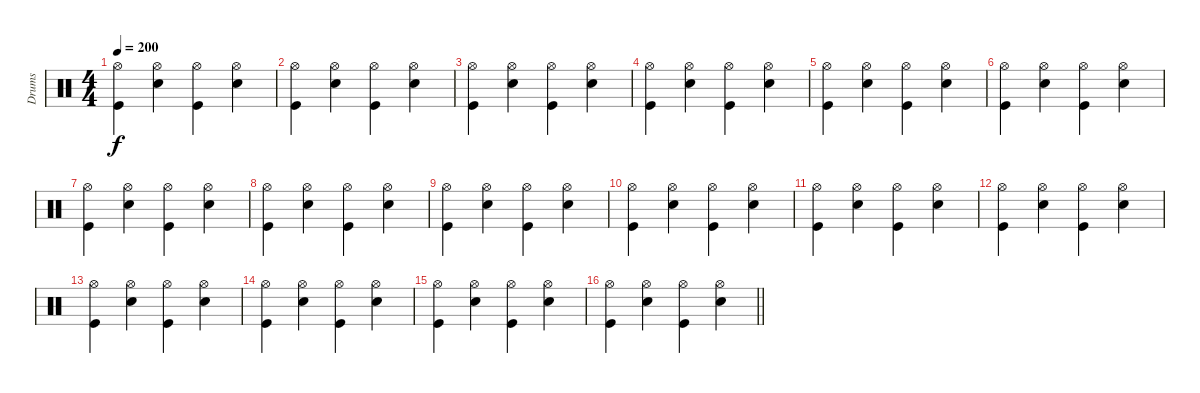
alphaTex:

\track ("Drums" "Drums") {instrument percussion}
\staff {score}
\articulation defaults
\ts (4 4)
\tempo 200
\clef neutral
\ks c
("Hi-Hat (open)" "Kick (hit)").4{dy f} ("Hi-Hat (open)" "Snare (hit) 2").4 ("Hi-Hat (open)" "Kick (hit)").4 ("Hi-Hat (open)" "Snare (hit) 2").4 |
("Hi-Hat (open)" "Kick (hit)").4 ("Hi-Hat (open)" "Snare (hit) 2").4 ("Hi-Hat (open)" "Kick (hit)").4 ("Hi-Hat (open)" "Snare (hit) 2").4 |
("Hi-Hat (open)" "Kick (hit)").4 ("Hi-Hat (open)" "Snare (hit) 2").4 ("Hi-Hat (open)" "Kick (hit)").4 ("Hi-Hat (open)" "Snare (hit) 2").4 |
("Hi-Hat (open)" "Kick (hit)").4 ("Hi-Hat (open)" "Snare (hit) 2").4 ("Hi-Hat (open)" "Kick (hit)").4 ("Hi-Hat (open)" "Snare (hit) 2").4 |
("Hi-Hat (open)" "Kick (hit)").4 ("Hi-Hat (open)" "Snare (hit) 2").4 ("Hi-Hat (open)" "Kick (hit)").4 ("Hi-Hat (open)" "Snare (hit) 2").4 |
("Hi-Hat (open)" "Kick (hit)").4 ("Hi-Hat (open)" "Snare (hit) 2").4 ("Hi-Hat (open)" "Kick (hit)").4 ("Hi-Hat (open)" "Snare (hit) 2").4 |
("Hi-Hat (open)" "Kick (hit)").4 ("Hi-Hat (open)" "Snare (hit) 2").4 ("Hi-Hat (open)" "Kick (hit)").4 ("Hi-Hat (open)" "Snare (hit) 2").4 |
("Hi-Hat (open)" "Kick (hit)").4 ("Hi-Hat (open)" "Snare (hit) 2").4 ("Hi-Hat (open)" "Kick (hit)").4 ("Hi-Hat (open)" "Snare (hit) 2").4 |
("Hi-Hat (open)" "Kick (hit)").4 ("Hi-Hat (open)" "Snare (hit) 2").4 ("Hi-Hat (open)" "Kick (hit)").4 ("Hi-Hat (open)" "Snare (hit) 2").4 |
("Hi-Hat (open)" "Kick (hit)").4 ("Hi-Hat (open)" "Snare (hit) 2").4 ("Hi-Hat (open)" "Kick (hit)").4 ("Hi-Hat (open)" "Snare (hit) 2").4 |
("Hi-Hat (open)" "Kick (hit)").4 ("Hi-Hat (open)" "Snare (hit) 2").4 ("Hi-Hat (open)" "Kick (hit)").4 ("Hi-Hat (open)" "Snare (hit) 2").4 |
("Hi-Hat (open)" "Kick (hit)").4 ("Hi-Hat (open)" "Snare (hit) 2").4 ("Hi-Hat (open)" "Kick (hit)").4 ("Hi-Hat (open)" "Snare (hit) 2").4 |
("Hi-Hat (open)" "Kick (hit)").4 ("Hi-Hat (open)" "Snare (hit) 2").4 ("Hi-Hat (open)" "Kick (hit)").4 ("Hi-Hat (open)" "Snare (hit) 2").4 |
("Hi-Hat (open)" "Kick (hit)").4 ("Hi-Hat (open)" "Snare (hit) 2").4 ("Hi-Hat (open)" "Kick (hit)").4 ("Hi-Hat (open)" "Snare (hit) 2").4 |
("Hi-Hat (open)" "Kick (hit)").4 ("Hi-Hat (open)" "Snare (hit) 2").4 ("Hi-Hat (open)" "Kick (hit)").4 ("Hi-Hat (open)" "Snare (hit) 2").4 |
\barLineRight lightlight
("Hi-Hat (open)" "Kick (hit)").4 ("Hi-Hat (open)" "Snare (hit) 2").4 ("Hi-Hat (open)" "Kick (hit)").4 ("Hi-Hat (open)" "Snare (hit) 2").4
